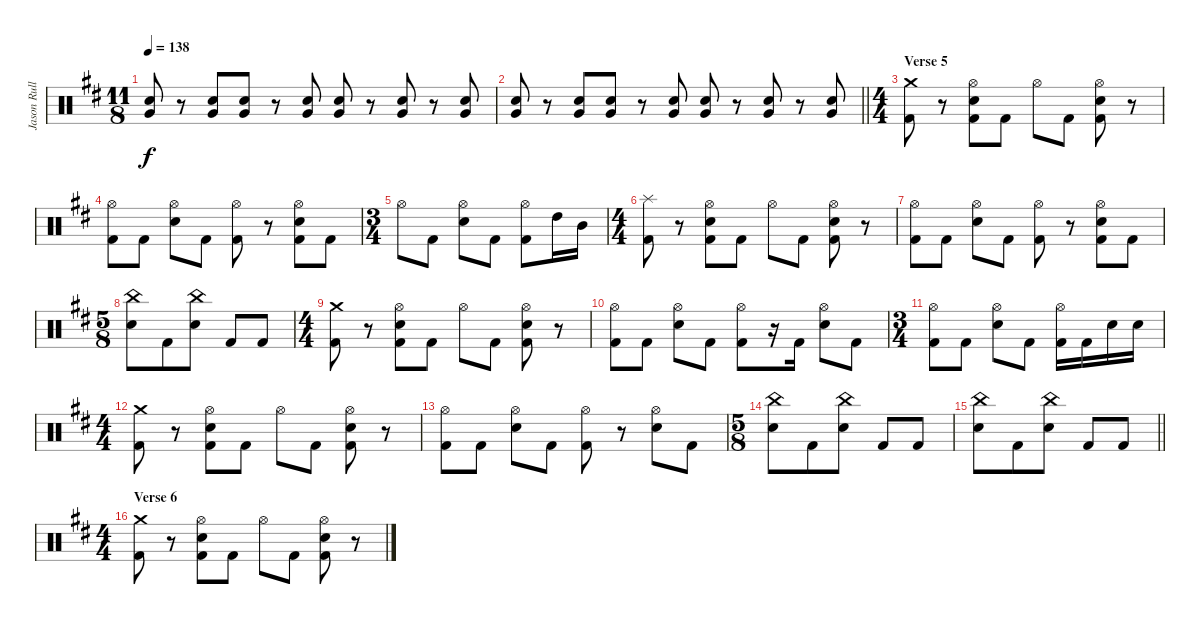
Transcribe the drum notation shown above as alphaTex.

\track ("Jason Rullo (drums)" "Jason Rull") {instrument percussion}
\staff {score}
\articulation defaults
\ts (11 8)
\tempo 138
\clef neutral
\ks bminor
("Very Low Tom (hit)" "Electric Snare (hit)").8{dy f volume 4 balance 8} r.8 ("Very Low Tom (hit)" "Electric Snare (hit)").8{volume 5} ("Very Low Tom (hit)" "Electric Snare (hit)").8{volume 5} r.8 ("Very Low Tom (hit)" "Electric Snare (hit)").8{volume 6} ("Very Low Tom (hit)" "Electric Snare (hit)").8{volume 7} r.8 ("Very Low Tom (hit)" "Electric Snare (hit)").8{volume 8} r.8 ("Very Low Tom (hit)" "Electric Snare (hit)").8{volume 9} |
\barLineRight lightlight
("Very Low Tom (hit)" "Electric Snare (hit)").8{volume 9} r.8 ("Very Low Tom (hit)" "Electric Snare (hit)").8{volume 10} ("Very Low Tom (hit)" "Electric Snare (hit)").8{volume 11} r.8 ("Very Low Tom (hit)" "Electric Snare (hit)").8{volume 12} ("Very Low Tom (hit)" "Electric Snare (hit)").8{volume 12} r.8 ("Very Low Tom (hit)" "Electric Snare (hit)").8{volume 13} r.8 ("Very Low Tom (hit)" "Electric Snare (hit)").8{volume 14} |
\ts (4 4)
\section ("" "Verse 5")
("Crash medium (hit)" "Kick (hit) 2").8{volume 15} r.8 ("Hi-Hat (open)" "Electric Snare (hit)" "Kick (hit) 2").8 "Kick (hit) 2".8 "Hi-Hat (open)".8 "Kick (hit) 2".8 ("Hi-Hat (open)" "Kick (hit) 2" "Electric Snare (hit)").8 r.8 |
("Hi-Hat (open)" "Kick (hit) 2").8 "Kick (hit) 2".8 ("Hi-Hat (open)" "Electric Snare (hit)").8 "Kick (hit) 2".8 ("Hi-Hat (open)" "Kick (hit) 2").8 r.8 ("Hi-Hat (open)" "Electric Snare (hit)" "Kick (hit) 2").8 "Kick (hit) 2".8 |
\ts (3 4)
"Hi-Hat (open)".8 "Kick (hit) 2".8 ("Hi-Hat (open)" "Electric Snare (hit)").8 "Kick (hit) 2".8 ("Hi-Hat (open)" "Kick (hit) 2").8 "High Tom (hit)".16 "Mid Tom (hit)".16 |
\ts (4 4)
("Splash (hit)" "Kick (hit) 2").8 r.8 ("Hi-Hat (open)" "Electric Snare (hit)" "Kick (hit) 2").8 "Kick (hit) 2".8 "Hi-Hat (open)".8 "Kick (hit) 2".8 ("Hi-Hat (open)" "Kick (hit) 2" "Electric Snare (hit)").8 r.8 |
("Hi-Hat (open)" "Kick (hit) 2").8 "Kick (hit) 2".8 ("Hi-Hat (open)" "Electric Snare (hit)").8 "Kick (hit) 2".8 ("Hi-Hat (open)" "Kick (hit) 2").8 r.8 ("Hi-Hat (open)" "Electric Snare (hit)" "Kick (hit) 2").8 "Kick (hit) 2".8 |
\ts (5 8)
("China (hit)" "Electric Snare (hit)").8 "Kick (hit) 2".8 ("China (hit)" "Electric Snare (hit)").8 "Kick (hit) 2".8 "Kick (hit) 2".8 |
\ts (4 4)
("Crash medium (hit)" "Kick (hit) 2").8 r.8 ("Hi-Hat (open)" "Electric Snare (hit)" "Kick (hit) 2").8 "Kick (hit) 2".8 "Hi-Hat (open)".8 "Kick (hit) 2".8 ("Hi-Hat (open)" "Kick (hit) 2" "Electric Snare (hit)").8 r.8 |
("Hi-Hat (open)" "Kick (hit) 2").8 "Kick (hit) 2".8 ("Hi-Hat (open)" "Electric Snare (hit)").8 "Kick (hit) 2".8 ("Hi-Hat (open)" "Kick (hit) 2").8 r.16 "Kick (hit) 2".16 ("Hi-Hat (open)" "Electric Snare (hit)").8 "Kick (hit) 2".8 |
\ts (3 4)
("Hi-Hat (open)" "Kick (hit) 2").8 "Kick (hit) 2".8 ("Hi-Hat (open)" "Electric Snare (hit)").8 "Kick (hit) 2".8 ("Hi-Hat (open)" "Kick (hit) 2").16 "Kick (hit) 2".16 "Electric Snare (hit)".16 "Electric Snare (hit)".16 |
\ts (4 4)
("Crash medium (hit)" "Kick (hit) 2").8 r.8 ("Hi-Hat (open)" "Electric Snare (hit)" "Kick (hit) 2").8 "Kick (hit) 2".8 "Hi-Hat (open)".8 "Kick (hit) 2".8 ("Hi-Hat (open)" "Kick (hit) 2" "Electric Snare (hit)").8 r.8 |
("Hi-Hat (open)" "Kick (hit) 2").8 "Kick (hit) 2".8 ("Hi-Hat (open)" "Electric Snare (hit)").8 "Kick (hit) 2".8 ("Hi-Hat (open)" "Kick (hit) 2").8 r.8 ("Hi-Hat (open)" "Electric Snare (hit)").8 "Kick (hit) 2".8 |
\ts (5 8)
("China (hit)" "Electric Snare (hit)").8 "Kick (hit) 2".8 ("China (hit)" "Electric Snare (hit)").8 "Kick (hit) 2".8 "Kick (hit) 2".8 |
\barLineRight lightlight
("China (hit)" "Electric Snare (hit)").8 "Kick (hit) 2".8 ("China (hit)" "Electric Snare (hit)").8 "Kick (hit) 2".8 "Kick (hit) 2".8 |
\ts (4 4)
\section ("" "Verse 6")
("Crash medium (hit)" "Kick (hit) 2").8 r.8 ("Hi-Hat (open)" "Electric Snare (hit)" "Kick (hit) 2").8 "Kick (hit) 2".8 "Hi-Hat (open)".8 "Kick (hit) 2".8 ("Hi-Hat (open)" "Kick (hit) 2" "Electric Snare (hit)").8 r.8
